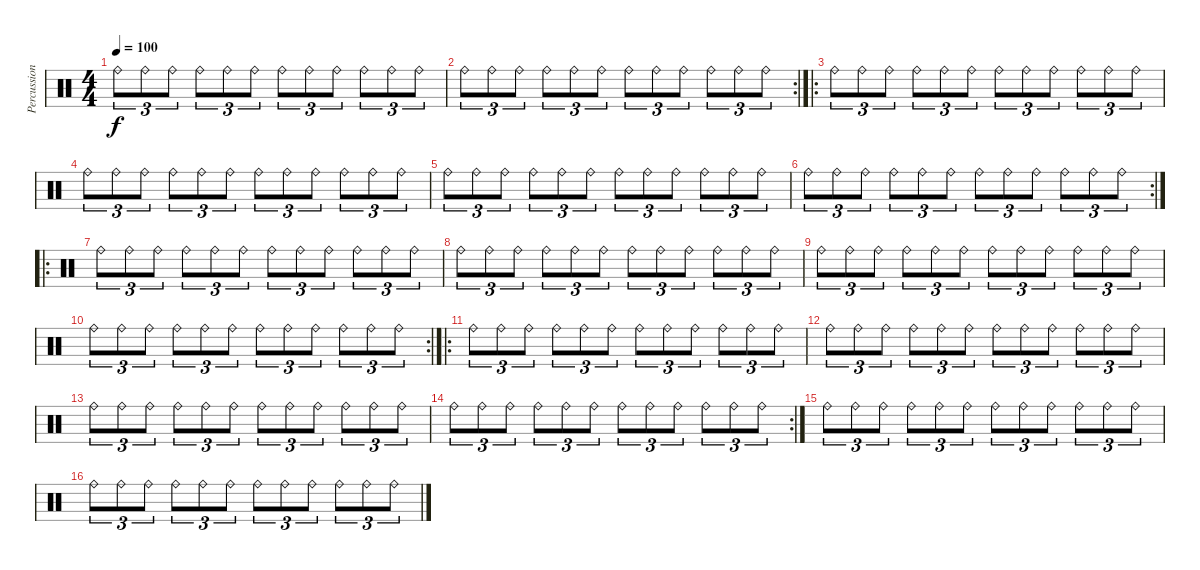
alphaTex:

\track ("Percussion" "Percussion") {instrument percussion}
\staff {score}
\articulation defaults
\ts (4 4)
\tempo 100
\clef neutral
\ks c "Ride (bell)".8{tu (3 2) dy f} "Ride (bell)".8{tu (3 2)} "Ride (bell)".8{tu (3 2)} "Ride (bell)".8{tu (3 2)} "Ride (bell)".8{tu (3 2)} "Ride (bell)".8{tu (3 2)} "Ride (bell)".8{tu (3 2)} "Ride (bell)".8{tu (3 2)} "Ride (bell)".8{tu (3 2)} "Ride (bell)".8{tu (3 2)} "Ride (bell)".8{tu (3 2)} "Ride (bell)".8{tu (3 2)}
|
\rc 2 "Ride (bell)".8{tu (3 2)} "Ride (bell)".8{tu (3 2)} "Ride (bell)".8{tu (3 2)} "Ride (bell)".8{tu (3 2)} "Ride (bell)".8{tu (3 2)} "Ride (bell)".8{tu (3 2)} "Ride (bell)".8{tu (3 2)} "Ride (bell)".8{tu (3 2)} "Ride (bell)".8{tu (3 2)} "Ride (bell)".8{tu (3 2)} "Ride (bell)".8{tu (3 2)} "Ride (bell)".8{tu (3 2)}
|
\ro "Ride (bell)".8{tu (3 2)} "Ride (bell)".8{tu (3 2)} "Ride (bell)".8{tu (3 2)} "Ride (bell)".8{tu (3 2)} "Ride (bell)".8{tu (3 2)} "Ride (bell)".8{tu (3 2)} "Ride (bell)".8{tu (3 2)} "Ride (bell)".8{tu (3 2)} "Ride (bell)".8{tu (3 2)} "Ride (bell)".8{tu (3 2)} "Ride (bell)".8{tu (3 2)} "Ride (bell)".8{tu (3 2)}
|
"Ride (bell)".8{tu (3 2)} "Ride (bell)".8{tu (3 2)} "Ride (bell)".8{tu (3 2)} "Ride (bell)".8{tu (3 2)} "Ride (bell)".8{tu (3 2)} "Ride (bell)".8{tu (3 2)} "Ride (bell)".8{tu (3 2)} "Ride (bell)".8{tu (3 2)} "Ride (bell)".8{tu (3 2)} "Ride (bell)".8{tu (3 2)} "Ride (bell)".8{tu (3 2)} "Ride (bell)".8{tu (3 2)} |
"Ride (bell)".8{tu (3 2)} "Ride (bell)".8{tu (3 2)} "Ride (bell)".8{tu (3 2)} "Ride (bell)".8{tu (3 2)} "Ride (bell)".8{tu (3 2)} "Ride (bell)".8{tu (3 2)} "Ride (bell)".8{tu (3 2)} "Ride (bell)".8{tu (3 2)} "Ride (bell)".8{tu (3 2)} "Ride (bell)".8{tu (3 2)} "Ride (bell)".8{tu (3 2)} "Ride (bell)".8{tu (3 2)} |
\rc 2 "Ride (bell)".8{tu (3 2)} "Ride (bell)".8{tu (3 2)} "Ride (bell)".8{tu (3 2)} "Ride (bell)".8{tu (3 2)} "Ride (bell)".8{tu (3 2)} "Ride (bell)".8{tu (3 2)} "Ride (bell)".8{tu (3 2)} "Ride (bell)".8{tu (3 2)} "Ride (bell)".8{tu (3 2)} "Ride (bell)".8{tu (3 2)} "Ride (bell)".8{tu (3 2)} "Ride (bell)".8{tu (3 2)}
|
\ro "Ride (bell)".8{tu (3 2)} "Ride (bell)".8{tu (3 2)} "Ride (bell)".8{tu (3 2)} "Ride (bell)".8{tu (3 2)} "Ride (bell)".8{tu (3 2)} "Ride (bell)".8{tu (3 2)} "Ride (bell)".8{tu (3 2)} "Ride (bell)".8{tu (3 2)} "Ride (bell)".8{tu (3 2)} "Ride (bell)".8{tu (3 2)} "Ride (bell)".8{tu (3 2)} "Ride (bell)".8{tu (3 2)}
|
"Ride (bell)".8{tu (3 2)} "Ride (bell)".8{tu (3 2)} "Ride (bell)".8{tu (3 2)} "Ride (bell)".8{tu (3 2)} "Ride (bell)".8{tu (3 2)} "Ride (bell)".8{tu (3 2)} "Ride (bell)".8{tu (3 2)} "Ride (bell)".8{tu (3 2)} "Ride (bell)".8{tu (3 2)} "Ride (bell)".8{tu (3 2)} "Ride (bell)".8{tu (3 2)} "Ride (bell)".8{tu (3 2)} |
"Ride (bell)".8{tu (3 2)} "Ride (bell)".8{tu (3 2)} "Ride (bell)".8{tu (3 2)} "Ride (bell)".8{tu (3 2)} "Ride (bell)".8{tu (3 2)} "Ride (bell)".8{tu (3 2)} "Ride (bell)".8{tu (3 2)} "Ride (bell)".8{tu (3 2)} "Ride (bell)".8{tu (3 2)} "Ride (bell)".8{tu (3 2)} "Ride (bell)".8{tu (3 2)} "Ride (bell)".8{tu (3 2)} |
\rc 2 "Ride (bell)".8{tu (3 2)} "Ride (bell)".8{tu (3 2)} "Ride (bell)".8{tu (3 2)} "Ride (bell)".8{tu (3 2)} "Ride (bell)".8{tu (3 2)} "Ride (bell)".8{tu (3 2)} "Ride (bell)".8{tu (3 2)} "Ride (bell)".8{tu (3 2)} "Ride (bell)".8{tu (3 2)} "Ride (bell)".8{tu (3 2)} "Ride (bell)".8{tu (3 2)} "Ride (bell)".8{tu (3 2)}
|
\ro "Ride (bell)".8{tu (3 2)} "Ride (bell)".8{tu (3 2)} "Ride (bell)".8{tu (3 2)} "Ride (bell)".8{tu (3 2)} "Ride (bell)".8{tu (3 2)} "Ride (bell)".8{tu (3 2)} "Ride (bell)".8{tu (3 2)} "Ride (bell)".8{tu (3 2)} "Ride (bell)".8{tu (3 2)} "Ride (bell)".8{tu (3 2)} "Ride (bell)".8{tu (3 2)} "Ride (bell)".8{tu (3 2)}
|
"Ride (bell)".8{tu (3 2)} "Ride (bell)".8{tu (3 2)} "Ride (bell)".8{tu (3 2)} "Ride (bell)".8{tu (3 2)} "Ride (bell)".8{tu (3 2)} "Ride (bell)".8{tu (3 2)} "Ride (bell)".8{tu (3 2)} "Ride (bell)".8{tu (3 2)} "Ride (bell)".8{tu (3 2)} "Ride (bell)".8{tu (3 2)} "Ride (bell)".8{tu (3 2)} "Ride (bell)".8{tu (3 2)} |
"Ride (bell)".8{tu (3 2)} "Ride (bell)".8{tu (3 2)} "Ride (bell)".8{tu (3 2)} "Ride (bell)".8{tu (3 2)} "Ride (bell)".8{tu (3 2)} "Ride (bell)".8{tu (3 2)} "Ride (bell)".8{tu (3 2)} "Ride (bell)".8{tu (3 2)} "Ride (bell)".8{tu (3 2)} "Ride (bell)".8{tu (3 2)} "Ride (bell)".8{tu (3 2)} "Ride (bell)".8{tu (3 2)} |
\rc 2 "Ride (bell)".8{tu (3 2)} "Ride (bell)".8{tu (3 2)} "Ride (bell)".8{tu (3 2)} "Ride (bell)".8{tu (3 2)} "Ride (bell)".8{tu (3 2)} "Ride (bell)".8{tu (3 2)} "Ride (bell)".8{tu (3 2)} "Ride (bell)".8{tu (3 2)} "Ride (bell)".8{tu (3 2)} "Ride (bell)".8{tu (3 2)} "Ride (bell)".8{tu (3 2)} "Ride (bell)".8{tu (3 2)}
|
"Ride (bell)".8{tu (3 2)} "Ride (bell)".8{tu (3 2)} "Ride (bell)".8{tu (3 2)} "Ride (bell)".8{tu (3 2)} "Ride (bell)".8{tu (3 2)} "Ride (bell)".8{tu (3 2)} "Ride (bell)".8{tu (3 2)} "Ride (bell)".8{tu (3 2)} "Ride (bell)".8{tu (3 2)} "Ride (bell)".8{tu (3 2)} "Ride (bell)".8{tu (3 2)} "Ride (bell)".8{tu (3 2)} |
"Ride (bell)".8{tu (3 2)} "Ride (bell)".8{tu (3 2)} "Ride (bell)".8{tu (3 2)} "Ride (bell)".8{tu (3 2)} "Ride (bell)".8{tu (3 2)} "Ride (bell)".8{tu (3 2)} "Ride (bell)".8{tu (3 2)} "Ride (bell)".8{tu (3 2)} "Ride (bell)".8{tu (3 2)} "Ride (bell)".8{tu (3 2)} "Ride (bell)".8{tu (3 2)} "Ride (bell)".8{tu (3 2)}
